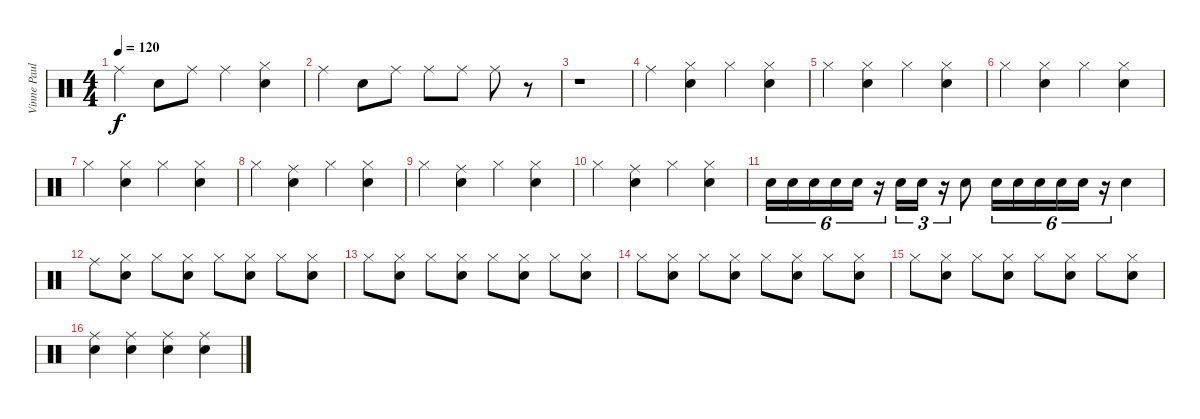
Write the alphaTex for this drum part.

\track ("Vinne Paul cymbals and tom" "Vinne Paul") {instrument percussion}
\staff {score}
\articulation defaults
\ts (4 4)
\tempo 120
\clef neutral
\ks c "Ride (middle)".4{dy f} "Electric Snare (hit)".8 "Ride (middle)".8 "Ride (middle)".4
("Hi-Hat (closed)" "Electric Snare (hit)").4 |
"Ride (middle)".4 "Electric Snare (hit)".8 "Ride (middle)".8 "Ride (middle)".8 "Ride (middle)".8 "Ride (middle)".8 r.8 |
r.1 |
"Ride (middle)".4 ("Hi-Hat (closed)" "Electric Snare (hit)").4 "Hi-Hat (closed)".4 ("Hi-Hat (closed)" "Electric Snare (hit)").4 |
"Hi-Hat (closed)".4 ("Hi-Hat (closed)" "Electric Snare (hit)").4 "Hi-Hat (closed)".4 ("Hi-Hat (closed)" "Electric Snare (hit)").4 |
"Hi-Hat (closed)".4 ("Hi-Hat (closed)" "Electric Snare (hit)").4 "Hi-Hat (closed)".4 ("Hi-Hat (closed)" "Electric Snare (hit)").4 |
"Hi-Hat (closed)".4 ("Hi-Hat (closed)" "Electric Snare (hit)").4 "Hi-Hat (closed)".4 ("Hi-Hat (closed)" "Electric Snare (hit)").4 |
"Hi-Hat (closed)".4 ("Ride (middle)" "Electric Snare (hit)").4 "Hi-Hat (closed)".4 ("Hi-Hat (closed)" "Electric Snare (hit)").4 |
"Hi-Hat (closed)".4 ("Ride (middle)" "Electric Snare (hit)").4 "Hi-Hat (closed)".4 ("Hi-Hat (closed)" "Electric Snare (hit)").4 |
"Hi-Hat (closed)".4 ("Ride (middle)" "Electric Snare (hit)").4 "Hi-Hat (closed)".4 ("Hi-Hat (closed)" "Electric Snare (hit)").4 |
"Electric Snare (hit)".16{tu (6 4)} "Electric Snare (hit)".16{tu (6 4)} "Electric Snare (hit)".16{tu (6 4)} "Electric Snare (hit)".16{tu (6 4)} "Electric Snare (hit)".16{tu (6 4)} r.16{tu (6 4)} "Electric Snare (hit)".16{tu (3 2)} "Electric Snare (hit)".16{tu (3 2)} r.16{tu (3 2)} "Electric Snare (hit)".8 "Electric Snare (hit)".16{tu (6 4)} "Electric Snare (hit)".16{tu (6 4)} "Electric Snare (hit)".16{tu (6 4)} "Electric Snare (hit)".16{tu (6 4)} "Electric Snare (hit)".16{tu (6 4)} r.16{tu (6 4)} "Electric Snare (hit)".4 |
"Ride (middle)".8 ("Hi-Hat (closed)" "Electric Snare (hit)").8 "Hi-Hat (closed)".8 ("Hi-Hat (closed)" "Electric Snare (hit)").8 "Hi-Hat (closed)".8 ("Hi-Hat (closed)" "Electric Snare (hit)").8 "Hi-Hat (closed)".8 ("Hi-Hat (closed)" "Electric Snare (hit)").8 |
"Hi-Hat (closed)".8 ("Hi-Hat (closed)" "Electric Snare (hit)").8 "Hi-Hat (closed)".8 ("Hi-Hat (closed)" "Electric Snare (hit)").8 "Hi-Hat (closed)".8 ("Hi-Hat (closed)" "Electric Snare (hit)").8 "Hi-Hat (closed)".8 ("Hi-Hat (closed)" "Electric Snare (hit)").8 |
"Hi-Hat (closed)".8 ("Hi-Hat (closed)" "Electric Snare (hit)").8 "Hi-Hat (closed)".8 ("Hi-Hat (closed)" "Electric Snare (hit)").8 "Hi-Hat (closed)".8 ("Hi-Hat (closed)" "Electric Snare (hit)").8 "Hi-Hat (closed)".8 ("Hi-Hat (closed)" "Electric Snare (hit)").8 |
"Hi-Hat (closed)".8 ("Hi-Hat (closed)" "Electric Snare (hit)").8 "Hi-Hat (closed)".8 ("Hi-Hat (closed)" "Electric Snare (hit)").8 "Hi-Hat (closed)".8 ("Hi-Hat (closed)" "Electric Snare (hit)").8 "Hi-Hat (closed)".8 ("Hi-Hat (closed)" "Electric Snare (hit)").8 |
("Ride (middle)" "Electric Snare (hit)").4 ("Ride (middle)" "Electric Snare (hit)").4 ("Ride (middle)" "Electric Snare (hit)").4 ("Ride (middle)" "Electric Snare (hit)").4
